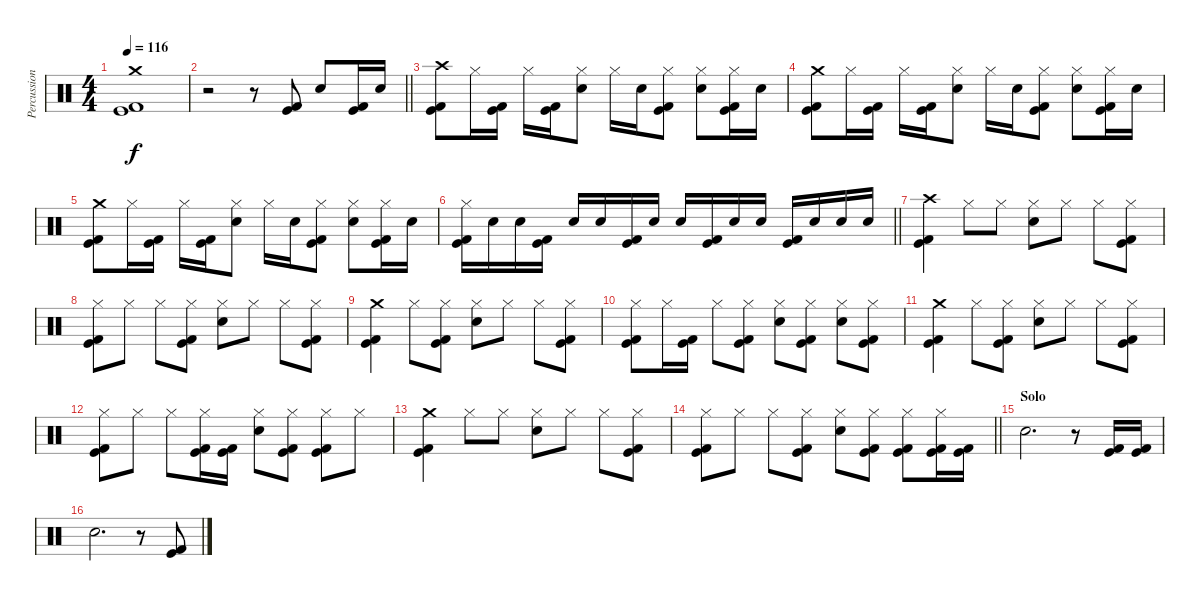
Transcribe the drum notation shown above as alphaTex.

\track ("Percussion" "Percussion") {instrument percussion}
\staff {score}
\articulation defaults
\ts (4 4)
\tempo 116
\clef neutral
\ks c
("Crash medium (hit)" "Kick (hit)" "Kick (hit) 2").1{dy f} |
\barLineRight lightlight
r.2 r.8 ("Kick (hit)" "Kick (hit) 2").8 "Electric Snare (hit)".8 ("Kick (hit)" "Kick (hit) 2").16 "Electric Snare (hit)".16 |
\section ("" "")
("Crash high (hit)" "Kick (hit)" "Kick (hit) 2").8 "Hi-Hat (closed)".16 ("Kick (hit)" "Kick (hit) 2").16 "Hi-Hat (closed)".16 ("Kick (hit)" "Kick (hit) 2").16 ("Hi-Hat (closed)" "Electric Snare (hit)").8 "Hi-Hat (closed)".16 "Electric Snare (hit)".16 ("Hi-Hat (closed)" "Kick (hit)" "Kick (hit) 2").8 ("Hi-Hat (closed)" "Electric Snare (hit)").8 ("Hi-Hat (closed)" "Kick (hit)" "Kick (hit) 2").16 "Electric Snare (hit)".16 |
("Crash medium (hit)" "Kick (hit)" "Kick (hit) 2").8 "Hi-Hat (closed)".16 ("Kick (hit)" "Kick (hit) 2").16 "Hi-Hat (closed)".16 ("Kick (hit)" "Kick (hit) 2").16 ("Hi-Hat (closed)" "Electric Snare (hit)").8 "Hi-Hat (closed)".16 "Electric Snare (hit)".16 ("Hi-Hat (closed)" "Kick (hit)" "Kick (hit) 2").8 ("Hi-Hat (closed)" "Electric Snare (hit)").8 ("Hi-Hat (closed)" "Kick (hit)" "Kick (hit) 2").16 "Electric Snare (hit)".16 |
("Crash medium (hit)" "Kick (hit)" "Kick (hit) 2").8 "Hi-Hat (closed)".16 ("Kick (hit)" "Kick (hit) 2").16 "Hi-Hat (closed)".16 ("Kick (hit)" "Kick (hit) 2").16 ("Hi-Hat (closed)" "Electric Snare (hit)").8 "Hi-Hat (closed)".16 "Electric Snare (hit)".16 ("Hi-Hat (closed)" "Kick (hit)" "Kick (hit) 2").8 ("Hi-Hat (closed)" "Electric Snare (hit)").8 ("Hi-Hat (closed)" "Kick (hit)" "Kick (hit) 2").16 "Electric Snare (hit)".16 |
\barLineRight lightlight
("Hi-Hat (closed)" "Kick (hit)" "Kick (hit) 2").16 "Electric Snare (hit)".16 "Electric Snare (hit)".16 ("Kick (hit)" "Kick (hit) 2").16 "Electric Snare (hit)".16 "Electric Snare (hit)".16 ("Kick (hit)" "Kick (hit) 2").16 "Electric Snare (hit)".16 "Electric Snare (hit)".16 ("Kick (hit)" "Kick (hit) 2").16 "Electric Snare (hit)".16 "Electric Snare (hit)".16 ("Kick (hit)" "Kick (hit) 2").16 "Electric Snare (hit)".16 "Electric Snare (hit)".16 "Electric Snare (hit)".16 |
\section ("" "")
("Crash high (hit)" "Kick (hit)" "Kick (hit) 2").4 "Hi-Hat (closed)".8 "Hi-Hat (closed)".8 ("Hi-Hat (closed)" "Electric Snare (hit)").8 "Hi-Hat (closed)".8 "Hi-Hat (closed)".8 ("Hi-Hat (closed)" "Kick (hit)" "Kick (hit) 2").8 |
("Hi-Hat (closed)" "Kick (hit)" "Kick (hit) 2").8 "Hi-Hat (closed)".8 "Hi-Hat (closed)".8 ("Hi-Hat (closed)" "Kick (hit)" "Kick (hit) 2").8 ("Hi-Hat (closed)" "Electric Snare (hit)").8 "Hi-Hat (closed)".8 "Hi-Hat (closed)".8 ("Hi-Hat (closed)" "Kick (hit)" "Kick (hit) 2").8 |
("Crash medium (hit)" "Kick (hit)" "Kick (hit) 2").4 "Hi-Hat (closed)".8 ("Hi-Hat (closed)" "Kick (hit)" "Kick (hit) 2").8 ("Hi-Hat (closed)" "Electric Snare (hit)").8 "Hi-Hat (closed)".8 "Hi-Hat (closed)".8 ("Hi-Hat (closed)" "Kick (hit)" "Kick (hit) 2").8 |
("Hi-Hat (closed)" "Kick (hit)" "Kick (hit) 2").8 "Hi-Hat (closed)".16 ("Kick (hit)" "Kick (hit) 2").16 "Hi-Hat (closed)".8 ("Hi-Hat (closed)" "Kick (hit)" "Kick (hit) 2").8 ("Hi-Hat (closed)" "Electric Snare (hit)").8 ("Hi-Hat (closed)" "Kick (hit)" "Kick (hit) 2").8 ("Hi-Hat (closed)" "Electric Snare (hit)").8 ("Hi-Hat (closed)" "Kick (hit)" "Kick (hit) 2").8 |
("Crash medium (hit)" "Kick (hit)" "Kick (hit) 2").4 "Hi-Hat (closed)".8 ("Hi-Hat (closed)" "Kick (hit)" "Kick (hit) 2").8 ("Hi-Hat (closed)" "Electric Snare (hit)").8 "Hi-Hat (closed)".8 "Hi-Hat (closed)".8 ("Hi-Hat (closed)" "Kick (hit)" "Kick (hit) 2").8 |
("Hi-Hat (closed)" "Kick (hit)" "Kick (hit) 2").8 "Hi-Hat (closed)".8 "Hi-Hat (closed)".8 ("Hi-Hat (closed)" "Kick (hit)" "Kick (hit) 2").16 ("Kick (hit)" "Kick (hit) 2").16 ("Hi-Hat (closed)" "Electric Snare (hit)").8 ("Hi-Hat (closed)" "Kick (hit)" "Kick (hit) 2").8 ("Hi-Hat (closed)" "Kick (hit)" "Kick (hit) 2").8 "Hi-Hat (closed)".8 |
("Crash medium (hit)" "Kick (hit)" "Kick (hit) 2").4 "Hi-Hat (closed)".8 "Hi-Hat (closed)".8 ("Hi-Hat (closed)" "Electric Snare (hit)").8 "Hi-Hat (closed)".8 "Hi-Hat (closed)".8 ("Hi-Hat (closed)" "Kick (hit)" "Kick (hit) 2").8 |
\barLineRight lightlight
("Hi-Hat (closed)" "Kick (hit)" "Kick (hit) 2").8 "Hi-Hat (closed)".8 "Hi-Hat (closed)".8 ("Hi-Hat (closed)" "Kick (hit)" "Kick (hit) 2").8 ("Hi-Hat (closed)" "Electric Snare (hit)").8 ("Hi-Hat (closed)" "Kick (hit)" "Kick (hit) 2").8 ("Hi-Hat (closed)" "Kick (hit)" "Kick (hit) 2").8 ("Hi-Hat (closed)" "Kick (hit)" "Kick (hit) 2").16 ("Kick (hit)" "Kick (hit) 2").16 |
\section ("" "Solo")
"Electric Snare (hit)".2{d} r.8 ("Kick (hit)" "Kick (hit) 2").16 ("Kick (hit)" "Kick (hit) 2").16 |
"Electric Snare (hit)".2{d} r.8 ("Kick (hit)" "Kick (hit) 2").8
